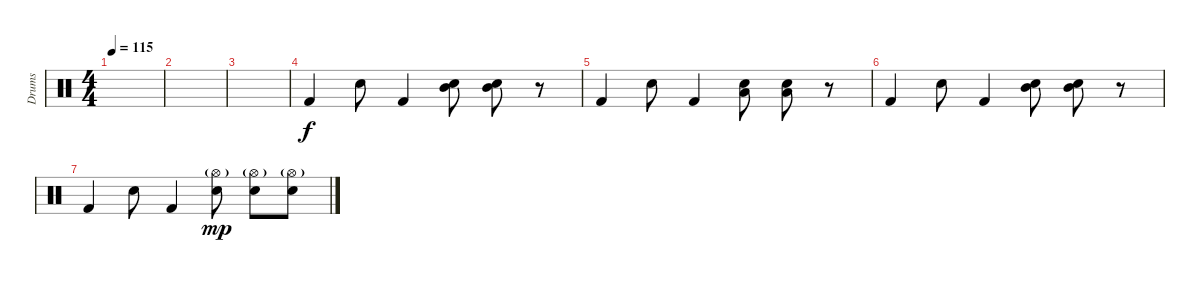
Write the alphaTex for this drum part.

\track ("Drums" "Drums") {instrument percussion}
\staff {score}
\articulation defaults
\ts (4 4)
\tempo 115
\clef neutral
\ks c
|
|
|
"Kick (hit) 2".4{dy f} "Snare (hit) 2".8 "Kick (hit) 2".4 ("Mid Tom (hit)" "Snare (hit) 2").8 ("Mid Tom (hit)" "Snare (hit) 2").8 r.8 |
"Kick (hit) 2".4 "Snare (hit) 2".8 "Kick (hit) 2".4 ("Low Tom (hit)" "Snare (hit) 2").8 ("Low Tom (hit)" "Snare (hit) 2").8 r.8 |
"Kick (hit) 2".4 "Snare (hit) 2".8 "Kick (hit) 2".4 ("Mid Tom (hit)" "Snare (hit) 2").8 ("Mid Tom (hit)" "Snare (hit) 2").8 r.8 |
"Kick (hit) 2".4 "Snare (hit) 2".8 "Kick (hit) 2".4 ("Hi-Hat (open)"{g} "Snare (hit) 2").8{dy mp} ("Hi-Hat (open)"{g} "Snare (hit) 2").8 ("Hi-Hat (open)"{g} "Snare (hit) 2").8
